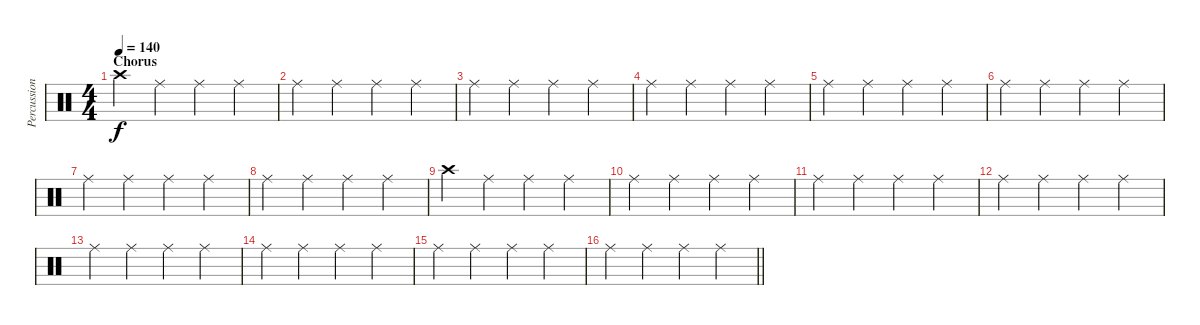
\track ("Percussion" "Percussion") {instrument percussion}
\staff {score}
\articulation defaults
\ts (4 4)
\section ("" "Chorus")
\tempo 140
\clef neutral
\ks c "Crash high (hit)".4{dy f} "Ride (middle)".4 "Ride (middle)".4 "Ride (middle)".4
|
"Ride (middle)".4 "Ride (middle)".4 "Ride (middle)".4 "Ride (middle)".4 |
"Ride (middle)".4 "Ride (middle)".4 "Ride (middle)".4 "Ride (middle)".4 |
"Ride (middle)".4 "Ride (middle)".4 "Ride (middle)".4 "Ride (middle)".4 |
"Ride (middle)".4 "Ride (middle)".4 "Ride (middle)".4 "Ride (middle)".4 |
"Ride (middle)".4 "Ride (middle)".4 "Ride (middle)".4 "Ride (middle)".4 |
"Ride (middle)".4 "Ride (middle)".4 "Ride (middle)".4 "Ride (middle)".4 |
"Ride (middle)".4 "Ride (middle)".4 "Ride (middle)".4 "Ride (middle)".4 |
"Crash high (hit)".4 "Ride (middle)".4 "Ride (middle)".4 "Ride (middle)".4 |
"Ride (middle)".4 "Ride (middle)".4 "Ride (middle)".4 "Ride (middle)".4 |
"Ride (middle)".4 "Ride (middle)".4 "Ride (middle)".4 "Ride (middle)".4 |
"Ride (middle)".4 "Ride (middle)".4 "Ride (middle)".4 "Ride (middle)".4 |
"Ride (middle)".4 "Ride (middle)".4 "Ride (middle)".4 "Ride (middle)".4 |
"Ride (middle)".4 "Ride (middle)".4 "Ride (middle)".4 "Ride (middle)".4 |
"Ride (middle)".4 "Ride (middle)".4 "Ride (middle)".4 "Ride (middle)".4 |
\barLineRight lightlight "Ride (middle)".4 "Ride (middle)".4 "Ride (middle)".4 "Ride (middle)".4
